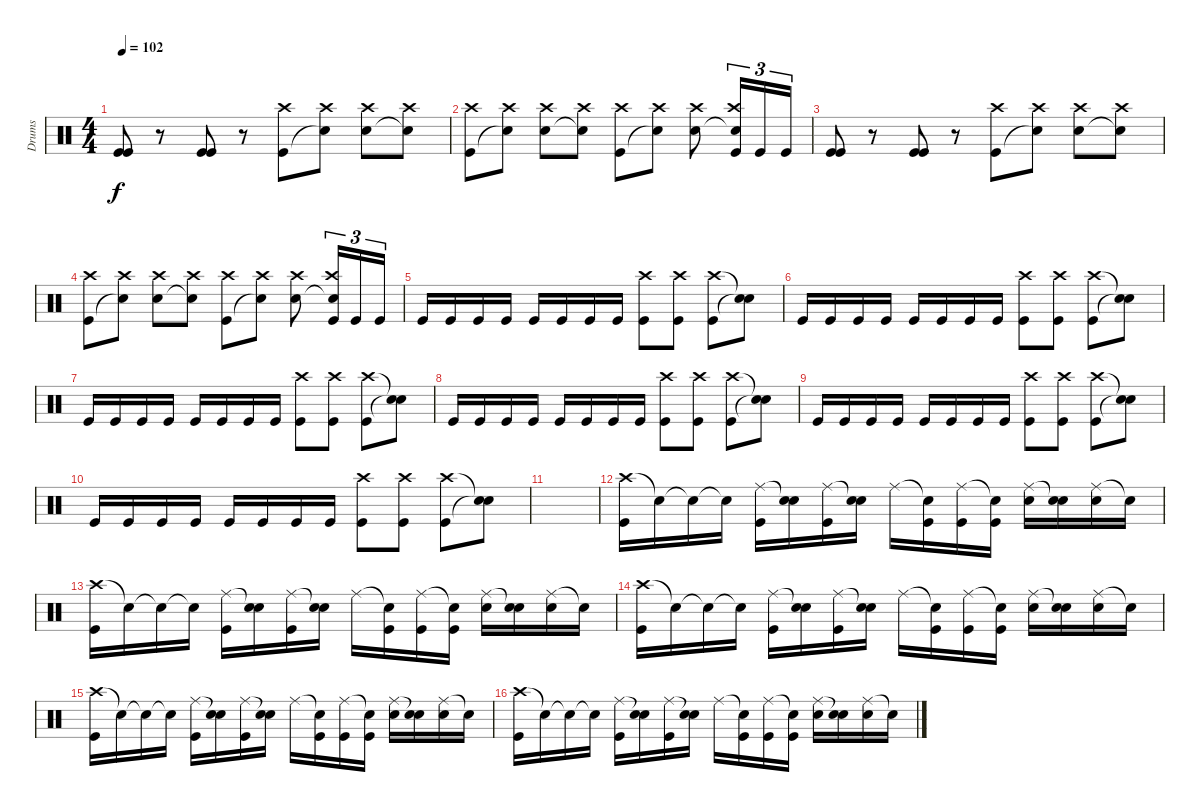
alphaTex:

\track ("Drums" "Drums") {instrument percussion}
\staff {score}
\articulation defaults
\ts (4 4)
\tempo 102
\clef neutral
\ks c
("Kick (hit)" "Kick (hit)").8{dy f} r.8 ("Kick (hit)" "Kick (hit)").8 r.8 ("Crash high (hit)" "Kick (hit)").8 ("Crash high (hit)" "Snare (hit)"{t}).8 ("Crash high (hit)" "Snare (hit) 2").8 ("Crash high (hit)" "Snare (hit)"{t}).8 |
("Crash high (hit)" "Kick (hit)").8 ("Crash high (hit)" "Snare (hit)"{t}).8 ("Crash high (hit)" "Snare (hit) 2").8 ("Crash high (hit)" "Snare (hit)"{t}).8 ("Crash high (hit)" "Kick (hit)").8 ("Crash high (hit)" "Snare (hit)"{t}).8 ("Crash high (hit)" "Snare (hit) 2").8 ("Crash high (hit)" "Snare (hit)"{t} "Kick (hit)").16{tu (3 2)} "Kick (hit)".16{tu (3 2)} "Kick (hit)".16{tu (3 2)} |
("Kick (hit)" "Kick (hit)").8 r.8 ("Kick (hit)" "Kick (hit)").8 r.8 ("Crash high (hit)" "Kick (hit)").8 ("Crash high (hit)" "Snare (hit)"{t}).8 ("Crash high (hit)" "Snare (hit) 2").8 ("Crash high (hit)" "Snare (hit)"{t}).8 |
("Crash high (hit)" "Kick (hit)").8 ("Crash high (hit)" "Snare (hit)"{t}).8 ("Crash high (hit)" "Snare (hit) 2").8 ("Crash high (hit)" "Snare (hit)"{t}).8 ("Crash high (hit)" "Kick (hit)").8 ("Crash high (hit)" "Snare (hit)"{t}).8 ("Crash high (hit)" "Snare (hit) 2").8 ("Crash high (hit)" "Snare (hit)"{t} "Kick (hit)").16{tu (3 2)} "Kick (hit)".16{tu (3 2)} "Kick (hit)".16{tu (3 2)} |
"Kick (hit)".16 "Kick (hit)".16 "Kick (hit)".16 "Kick (hit)".16 "Kick (hit)".16 "Kick (hit)".16 "Kick (hit)".16 "Kick (hit)".16 ("Crash high (hit)" "Kick (hit)").8 ("Crash high (hit)" "Kick (hit)").8 ("Crash high (hit)" "Kick (hit)").8 ("Snare (hit)"{t} "Snare (hit)"{t}).8 |
"Kick (hit)".16 "Kick (hit)".16 "Kick (hit)".16 "Kick (hit)".16 "Kick (hit)".16 "Kick (hit)".16 "Kick (hit)".16 "Kick (hit)".16 ("Crash high (hit)" "Kick (hit)").8 ("Crash high (hit)" "Kick (hit)").8 ("Crash high (hit)" "Kick (hit)").8 ("Snare (hit)"{t} "Snare (hit)"{t}).8 |
"Kick (hit)".16 "Kick (hit)".16 "Kick (hit)".16 "Kick (hit)".16 "Kick (hit)".16 "Kick (hit)".16 "Kick (hit)".16 "Kick (hit)".16 ("Crash high (hit)" "Kick (hit)").8 ("Crash high (hit)" "Kick (hit)").8 ("Crash high (hit)" "Kick (hit)").8 ("Snare (hit)"{t} "Snare (hit)"{t}).8 |
"Kick (hit)".16 "Kick (hit)".16 "Kick (hit)".16 "Kick (hit)".16 "Kick (hit)".16 "Kick (hit)".16 "Kick (hit)".16 "Kick (hit)".16 ("Crash high (hit)" "Kick (hit)").8 ("Crash high (hit)" "Kick (hit)").8 ("Crash high (hit)" "Kick (hit)").8 ("Snare (hit)"{t} "Snare (hit)"{t}).8 |
"Kick (hit)".16 "Kick (hit)".16 "Kick (hit)".16 "Kick (hit)".16 "Kick (hit)".16 "Kick (hit)".16 "Kick (hit)".16 "Kick (hit)".16 ("Crash high (hit)" "Kick (hit)").8 ("Crash high (hit)" "Kick (hit)").8 ("Crash high (hit)" "Kick (hit)").8 ("Snare (hit)"{t} "Snare (hit)"{t}).8 |
"Kick (hit)".16 "Kick (hit)".16 "Kick (hit)".16 "Kick (hit)".16 "Kick (hit)".16 "Kick (hit)".16 "Kick (hit)".16 "Kick (hit)".16 ("Crash high (hit)" "Kick (hit)").8 ("Crash high (hit)" "Kick (hit)").8 ("Crash high (hit)" "Kick (hit)").8 ("Snare (hit)"{t} "Snare (hit)"{t}).8 |
|
("Crash high (hit)" "Kick (hit)").16 "Snare (hit)"{t}.16 "Snare (hit)"{t}.16 "Snare (hit)"{t}.16 ("Ride (middle)" "Kick (hit)").16 ("Snare (hit)"{t} "Snare (hit) 2").16 ("Ride (middle)" "Kick (hit)").16 ("Snare (hit)"{t} "Snare (hit) 2").16 "Ride (middle)".16 ("Snare (hit)"{t} "Kick (hit)").16 ("Ride (middle)" "Kick (hit)").16 ("Snare (hit)"{t} "Kick (hit)").16 ("Ride (middle)" "Snare (hit) 2").16 ("Snare (hit)"{t} "Snare (hit) 2").16 ("Ride (middle)" "Snare (hit) 2").16 "Snare (hit)"{t}.16 |
("Crash high (hit)" "Kick (hit)").16 "Snare (hit)"{t}.16 "Snare (hit)"{t}.16 "Snare (hit)"{t}.16 ("Ride (middle)" "Kick (hit)").16 ("Snare (hit)"{t} "Snare (hit) 2").16 ("Ride (middle)" "Kick (hit)").16 ("Snare (hit)"{t} "Snare (hit) 2").16 "Ride (middle)".16 ("Snare (hit)"{t} "Kick (hit)").16 ("Ride (middle)" "Kick (hit)").16 ("Snare (hit)"{t} "Kick (hit)").16 ("Ride (middle)" "Snare (hit) 2").16 ("Snare (hit)"{t} "Snare (hit) 2").16 ("Ride (middle)" "Snare (hit) 2").16 "Snare (hit)"{t}.16 |
("Crash high (hit)" "Kick (hit)").16 "Snare (hit)"{t}.16 "Snare (hit)"{t}.16 "Snare (hit)"{t}.16 ("Ride (middle)" "Kick (hit)").16 ("Snare (hit)"{t} "Snare (hit) 2").16 ("Ride (middle)" "Kick (hit)").16 ("Snare (hit)"{t} "Snare (hit) 2").16 "Ride (middle)".16 ("Snare (hit)"{t} "Kick (hit)").16 ("Ride (middle)" "Kick (hit)").16 ("Snare (hit)"{t} "Kick (hit)").16 ("Ride (middle)" "Snare (hit) 2").16 ("Snare (hit)"{t} "Snare (hit) 2").16 ("Ride (middle)" "Snare (hit) 2").16 "Snare (hit)"{t}.16 |
("Crash high (hit)" "Kick (hit)").16 "Snare (hit)"{t}.16 "Snare (hit)"{t}.16 "Snare (hit)"{t}.16 ("Ride (middle)" "Kick (hit)").16 ("Snare (hit)"{t} "Snare (hit) 2").16 ("Ride (middle)" "Kick (hit)").16 ("Snare (hit)"{t} "Snare (hit) 2").16 "Ride (middle)".16 ("Snare (hit)"{t} "Kick (hit)").16 ("Ride (middle)" "Kick (hit)").16 ("Snare (hit)"{t} "Kick (hit)").16 ("Ride (middle)" "Snare (hit) 2").16 ("Snare (hit)"{t} "Snare (hit) 2").16 ("Ride (middle)" "Snare (hit) 2").16 "Snare (hit)"{t}.16 |
("Crash high (hit)" "Kick (hit)").16 "Snare (hit)"{t}.16 "Snare (hit)"{t}.16 "Snare (hit)"{t}.16 ("Ride (middle)" "Kick (hit)").16 ("Snare (hit)"{t} "Snare (hit) 2").16 ("Ride (middle)" "Kick (hit)").16 ("Snare (hit)"{t} "Snare (hit) 2").16 "Ride (middle)".16 ("Snare (hit)"{t} "Kick (hit)").16 ("Ride (middle)" "Kick (hit)").16 ("Snare (hit)"{t} "Kick (hit)").16 ("Ride (middle)" "Snare (hit) 2").16 ("Snare (hit)"{t} "Snare (hit) 2").16 ("Ride (middle)" "Snare (hit) 2").16 "Snare (hit)"{t}.16
